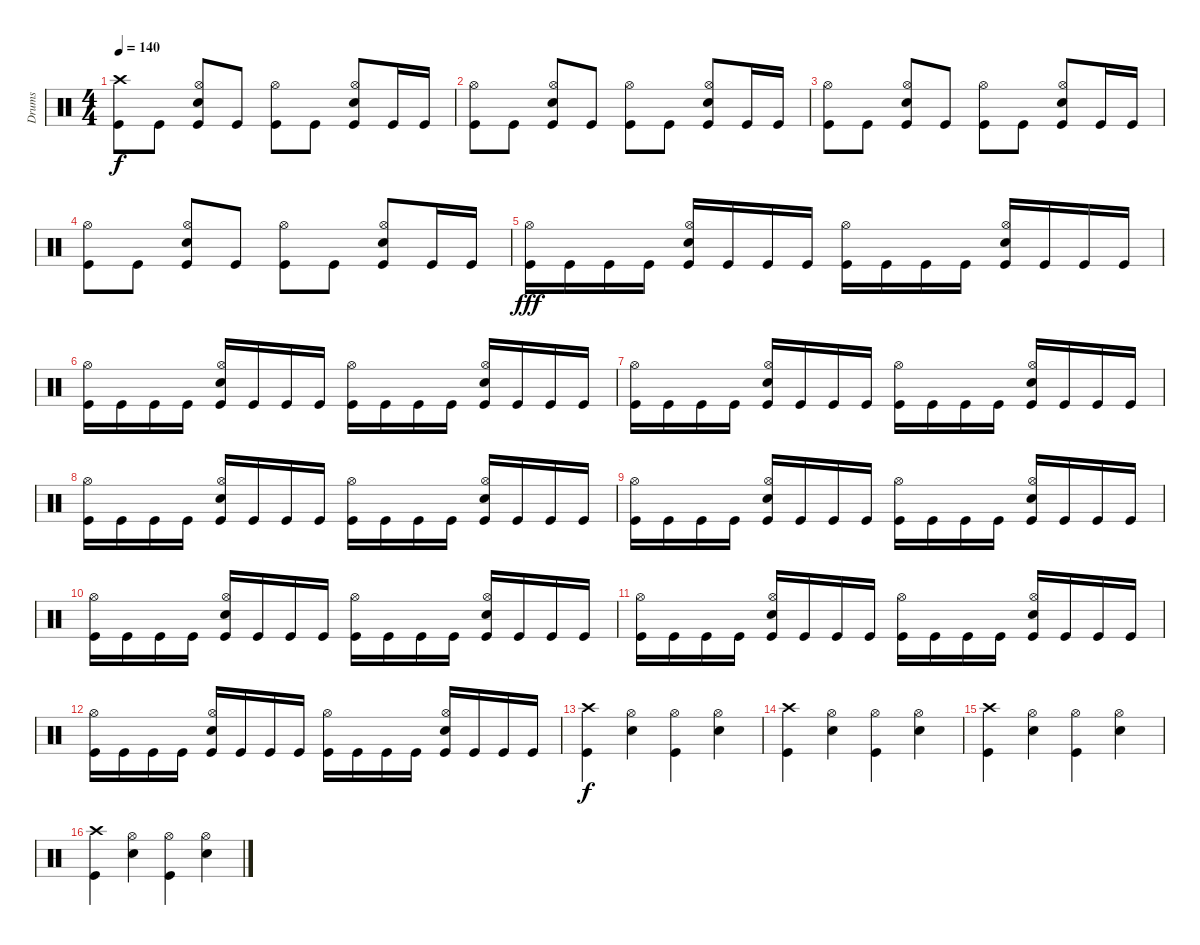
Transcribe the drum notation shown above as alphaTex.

\track ("Drums" "Drums") {instrument percussion}
\staff {score}
\articulation defaults
\ts (4 4)
\tempo 140
\clef neutral
\ks c
("Crash high (hit)" "Kick (hit)").8{dy f} "Kick (hit)".8 ("Hi-Hat (open)" "Snare (hit) 2" "Kick (hit)").8 "Kick (hit)".8 ("Hi-Hat (open)" "Kick (hit)").8 "Kick (hit)".8 ("Hi-Hat (open)" "Snare (hit) 2" "Kick (hit)").8 "Kick (hit)".16 "Kick (hit)".16 |
("Hi-Hat (open)" "Kick (hit)").8 "Kick (hit)".8 ("Hi-Hat (open)" "Snare (hit) 2" "Kick (hit)").8 "Kick (hit)".8 ("Hi-Hat (open)" "Kick (hit)").8 "Kick (hit)".8 ("Hi-Hat (open)" "Snare (hit) 2" "Kick (hit)").8 "Kick (hit)".16 "Kick (hit)".16 |
("Hi-Hat (open)" "Kick (hit)").8 "Kick (hit)".8 ("Hi-Hat (open)" "Snare (hit) 2" "Kick (hit)").8 "Kick (hit)".8 ("Hi-Hat (open)" "Kick (hit)").8 "Kick (hit)".8 ("Hi-Hat (open)" "Snare (hit) 2" "Kick (hit)").8 "Kick (hit)".16 "Kick (hit)".16 |
("Hi-Hat (open)" "Kick (hit)").8 "Kick (hit)".8 ("Hi-Hat (open)" "Snare (hit) 2" "Kick (hit)").8 "Kick (hit)".8 ("Hi-Hat (open)" "Kick (hit)").8 "Kick (hit)".8 ("Hi-Hat (open)" "Snare (hit) 2" "Kick (hit)").8 "Kick (hit)".16 "Kick (hit)".16 |
("Hi-Hat (open)" "Kick (hit)").16{dy fff} "Kick (hit)".16 "Kick (hit)".16 "Kick (hit)".16 ("Hi-Hat (open)" "Snare (hit) 2" "Kick (hit)").16 "Kick (hit)".16 "Kick (hit)".16 "Kick (hit)".16 ("Hi-Hat (open)" "Kick (hit)").16 "Kick (hit)".16 "Kick (hit)".16 "Kick (hit)".16 ("Hi-Hat (open)" "Snare (hit) 2" "Kick (hit)").16 "Kick (hit)".16 "Kick (hit)".16 "Kick (hit)".16 |
("Hi-Hat (open)" "Kick (hit)").16 "Kick (hit)".16 "Kick (hit)".16 "Kick (hit)".16 ("Hi-Hat (open)" "Snare (hit) 2" "Kick (hit)").16 "Kick (hit)".16 "Kick (hit)".16 "Kick (hit)".16 ("Hi-Hat (open)" "Kick (hit)").16 "Kick (hit)".16 "Kick (hit)".16 "Kick (hit)".16 ("Hi-Hat (open)" "Snare (hit) 2" "Kick (hit)").16 "Kick (hit)".16 "Kick (hit)".16 "Kick (hit)".16 |
("Hi-Hat (open)" "Kick (hit)").16 "Kick (hit)".16 "Kick (hit)".16 "Kick (hit)".16 ("Hi-Hat (open)" "Snare (hit) 2" "Kick (hit)").16 "Kick (hit)".16 "Kick (hit)".16 "Kick (hit)".16 ("Hi-Hat (open)" "Kick (hit)").16 "Kick (hit)".16 "Kick (hit)".16 "Kick (hit)".16 ("Hi-Hat (open)" "Snare (hit) 2" "Kick (hit)").16 "Kick (hit)".16 "Kick (hit)".16 "Kick (hit)".16 |
("Hi-Hat (open)" "Kick (hit)").16 "Kick (hit)".16 "Kick (hit)".16 "Kick (hit)".16 ("Hi-Hat (open)" "Snare (hit) 2" "Kick (hit)").16 "Kick (hit)".16 "Kick (hit)".16 "Kick (hit)".16 ("Hi-Hat (open)" "Kick (hit)").16 "Kick (hit)".16 "Kick (hit)".16 "Kick (hit)".16 ("Hi-Hat (open)" "Snare (hit) 2" "Kick (hit)").16 "Kick (hit)".16 "Kick (hit)".16 "Kick (hit)".16 |
("Hi-Hat (open)" "Kick (hit)").16 "Kick (hit)".16 "Kick (hit)".16 "Kick (hit)".16 ("Hi-Hat (open)" "Snare (hit) 2" "Kick (hit)").16 "Kick (hit)".16 "Kick (hit)".16 "Kick (hit)".16 ("Hi-Hat (open)" "Kick (hit)").16 "Kick (hit)".16 "Kick (hit)".16 "Kick (hit)".16 ("Hi-Hat (open)" "Snare (hit) 2" "Kick (hit)").16 "Kick (hit)".16 "Kick (hit)".16 "Kick (hit)".16 |
("Hi-Hat (open)" "Kick (hit)").16 "Kick (hit)".16 "Kick (hit)".16 "Kick (hit)".16 ("Hi-Hat (open)" "Snare (hit) 2" "Kick (hit)").16 "Kick (hit)".16 "Kick (hit)".16 "Kick (hit)".16 ("Hi-Hat (open)" "Kick (hit)").16 "Kick (hit)".16 "Kick (hit)".16 "Kick (hit)".16 ("Hi-Hat (open)" "Snare (hit) 2" "Kick (hit)").16 "Kick (hit)".16 "Kick (hit)".16 "Kick (hit)".16 |
("Hi-Hat (open)" "Kick (hit)").16 "Kick (hit)".16 "Kick (hit)".16 "Kick (hit)".16 ("Hi-Hat (open)" "Snare (hit) 2" "Kick (hit)").16 "Kick (hit)".16 "Kick (hit)".16 "Kick (hit)".16 ("Hi-Hat (open)" "Kick (hit)").16 "Kick (hit)".16 "Kick (hit)".16 "Kick (hit)".16 ("Hi-Hat (open)" "Snare (hit) 2" "Kick (hit)").16 "Kick (hit)".16 "Kick (hit)".16 "Kick (hit)".16 |
("Hi-Hat (open)" "Kick (hit)").16 "Kick (hit)".16 "Kick (hit)".16 "Kick (hit)".16 ("Hi-Hat (open)" "Snare (hit) 2" "Kick (hit)").16 "Kick (hit)".16 "Kick (hit)".16 "Kick (hit)".16 ("Hi-Hat (open)" "Kick (hit)").16 "Kick (hit)".16 "Kick (hit)".16 "Kick (hit)".16 ("Hi-Hat (open)" "Snare (hit) 2" "Kick (hit)").16 "Kick (hit)".16 "Kick (hit)".16 "Kick (hit)".16 |
("Crash high (hit)" "Kick (hit)").4{dy f} ("Hi-Hat (open)" "Snare (hit) 2").4 ("Hi-Hat (open)" "Kick (hit)").4 ("Hi-Hat (open)" "Snare (hit) 2").4 |
("Crash high (hit)" "Kick (hit)").4 ("Hi-Hat (open)" "Snare (hit) 2").4 ("Hi-Hat (open)" "Kick (hit)").4 ("Hi-Hat (open)" "Snare (hit) 2").4 |
("Crash high (hit)" "Kick (hit)").4 ("Hi-Hat (open)" "Snare (hit) 2").4 ("Hi-Hat (open)" "Kick (hit)").4 ("Hi-Hat (open)" "Snare (hit) 2").4 |
("Crash high (hit)" "Kick (hit)").4 ("Hi-Hat (open)" "Snare (hit) 2").4 ("Hi-Hat (open)" "Kick (hit)").4 ("Hi-Hat (open)" "Snare (hit) 2").4
